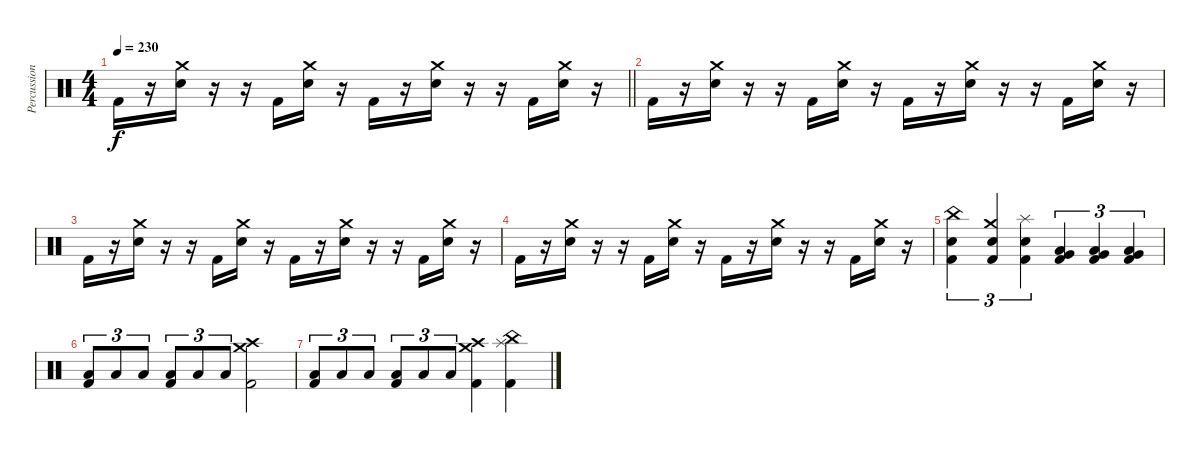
\track ("Percussions" "Percussion") {instrument percussion}
\staff {score}
\articulation defaults
\ts (4 4)
\tempo 230
\clef neutral
\barLineRight lightlight
\ks c "Kick (hit) 2".16{dy f}
r.16 ("Crash medium (hit)" "Electric Snare (hit)").16 r.16 r.16 "Kick (hit) 2".16 ("Crash medium (hit)" "Electric Snare (hit)").16 r.16 "Kick (hit) 2".16 r.16 ("Crash medium (hit)" "Electric Snare (hit)").16 r.16 r.16 "Kick (hit) 2".16 ("Crash medium (hit)" "Electric Snare (hit)").16 r.16 |
"Kick (hit) 2".16 r.16 ("Crash medium (hit)" "Electric Snare (hit)").16 r.16 r.16 "Kick (hit) 2".16 ("Crash medium (hit)" "Electric Snare (hit)").16 r.16 "Kick (hit) 2".16 r.16 ("Crash medium (hit)" "Electric Snare (hit)").16 r.16 r.16 "Kick (hit) 2".16 ("Crash medium (hit)" "Electric Snare (hit)").16 r.16 |
"Kick (hit) 2".16 r.16 ("Crash medium (hit)" "Electric Snare (hit)").16 r.16 r.16 "Kick (hit) 2".16 ("Crash medium (hit)" "Electric Snare (hit)").16 r.16 "Kick (hit) 2".16 r.16 ("Crash medium (hit)" "Electric Snare (hit)").16 r.16 r.16 "Kick (hit) 2".16 ("Crash medium (hit)" "Electric Snare (hit)").16 r.16 |
"Kick (hit) 2".16 r.16 ("Crash medium (hit)" "Electric Snare (hit)").16 r.16 r.16 "Kick (hit) 2".16 ("Crash medium (hit)" "Electric Snare (hit)").16 r.16 "Kick (hit) 2".16 r.16 ("Crash medium (hit)" "Electric Snare (hit)").16 r.16 r.16 "Kick (hit) 2".16 ("Crash medium (hit)" "Electric Snare (hit)").16 r.16 |
("China (hit)" "Electric Snare (hit)" "Kick (hit) 2").4{tu (3 2)} ("Crash medium (hit)" "Electric Snare (hit)" "Kick (hit) 2").4{tu (3 2)} ("Splash (hit)" "Electric Snare (hit)" "Kick (hit) 2").4{tu (3 2)} ("Very Low Tom (hit)" "Low Tom (hit)" "Kick (hit) 2").4{tu (3 2)} ("Very Low Tom (hit)" "Low Tom (hit)" "Kick (hit) 2").4{tu (3 2)} ("Very Low Tom (hit)" "Low Tom (hit)" "Kick (hit) 2").4{tu (3 2)} |
("Low Tom (hit)" "Kick (hit) 2").8{tu (3 2)} "Low Tom (hit)".8{tu (3 2)} "Low Tom (hit)".8{tu (3 2)} ("Low Tom (hit)" "Kick (hit) 2").8{tu (3 2)} "Low Tom (hit)".8{tu (3 2)} "Low Tom (hit)".8{tu (3 2)} ("Crash medium (hit)" "Crash high (hit)" "Kick (hit) 2").2 |
("Low Tom (hit)" "Kick (hit) 2").8{tu (3 2)} "Low Tom (hit)".8{tu (3 2)} "Low Tom (hit)".8{tu (3 2)} ("Low Tom (hit)" "Kick (hit) 2").8{tu (3 2)} "Low Tom (hit)".8{tu (3 2)} "Low Tom (hit)".8{tu (3 2)} ("Crash high (hit)" "Crash medium (hit)" "Kick (hit) 2").4 ("Splash (hit)" "China (hit)" "Kick (hit) 2").4
